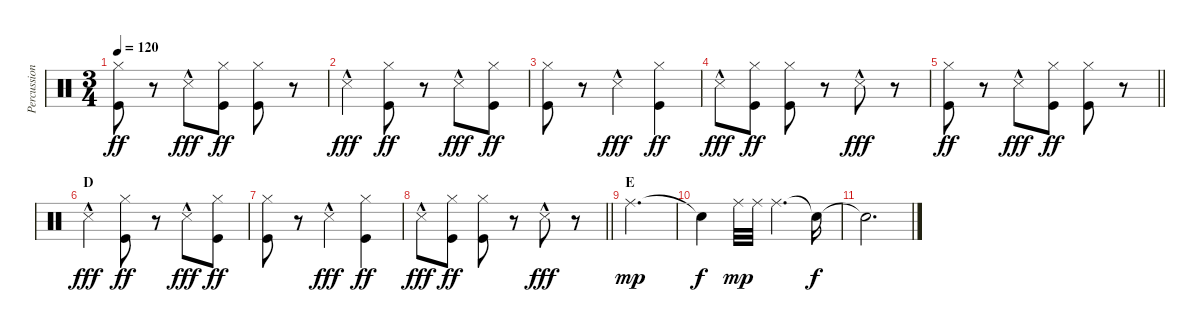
\track ("Percussion" "Percussion") {instrument percussion}
\staff {score}
\articulation defaults
\ts (3 4)
\tempo 120
\clef neutral
\ks c
("Hi-Hat (closed)" "Kick (hit)").8{dy ff} r.8 "Snare (side stick) 3"{hac}.8{dy fff} ("Hi-Hat (closed)" "Kick (hit)").8{dy ff} ("Hi-Hat (closed)" "Kick (hit)").8 r.8 |
"Snare (side stick) 3"{hac}.4{dy fff} ("Hi-Hat (closed)" "Kick (hit)").8{dy ff} r.8 "Snare (side stick) 3"{hac}.8{dy fff} ("Hi-Hat (closed)" "Kick (hit)").8{dy ff} |
("Hi-Hat (closed)" "Kick (hit)").8 r.8 "Snare (side stick) 3"{hac}.4{dy fff} ("Hi-Hat (closed)" "Kick (hit)").4{dy ff} |
"Snare (side stick) 3"{hac}.8{dy fff} ("Hi-Hat (closed)" "Kick (hit)").8{dy ff} ("Hi-Hat (closed)" "Kick (hit)").8 r.8 "Snare (side stick) 3"{hac}.8{dy fff} r.8 |
\barLineRight lightlight
("Hi-Hat (closed)" "Kick (hit)").8{dy ff} r.8 "Snare (side stick) 3"{hac}.8{dy fff} ("Hi-Hat (closed)" "Kick (hit)").8{dy ff} ("Hi-Hat (closed)" "Kick (hit)").8 r.8 |
\section ("" "D")
"Snare (side stick) 3"{hac}.4{dy fff} ("Hi-Hat (closed)" "Kick (hit)").8{dy ff} r.8 "Snare (side stick) 3"{hac}.8{dy fff} ("Hi-Hat (closed)" "Kick (hit)").8{dy ff} |
("Hi-Hat (closed)" "Kick (hit)").8 r.8 "Snare (side stick) 3"{hac}.4{dy fff} ("Hi-Hat (closed)" "Kick (hit)").4{dy ff} |
\barLineRight lightlight "Snare (side stick) 3"{hac}.8{dy fff}
("Hi-Hat (closed)" "Kick (hit)").8{dy ff} ("Hi-Hat (closed)" "Kick (hit)").8 r.8 "Snare (side stick) 3"{hac}.8{dy fff} r.8 |
\section ("" "E")
"Ride (middle)".2{d dy mp} |
"Snare (hit)"{t}.4{dy f} "Ride (middle)".32{dy mp} "Ride (middle)".32 "Ride (middle)".4{d} "Snare (hit)"{t}.16{dy f} |
"Snare (hit)"{t}.2{d}
